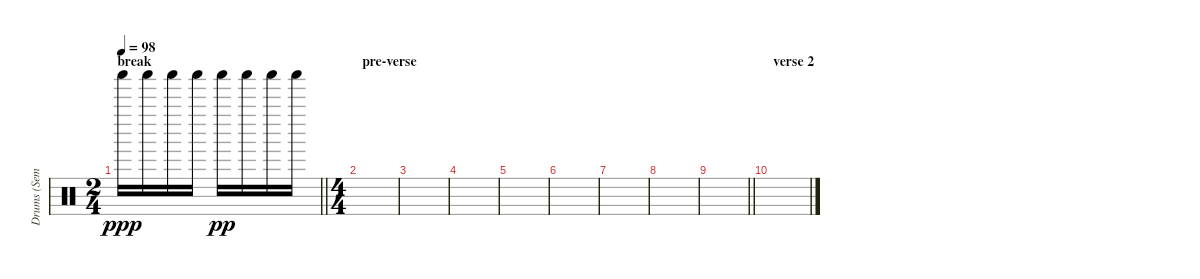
\track ("Drums (Semple)" "Drums (Sem") {instrument percussion}
\staff {score}
\articulation defaults
\ts (2 4)
\section ("" "break")
\tempo 98
\clef neutral
\barLineRight lightlight
\ks c "Shaker (hit)".16{dy ppp} "Shaker (hit)".16 "Shaker (hit)".16 "Shaker (hit)".16 "Shaker (hit)".16{dy pp} "Shaker (hit)".16 "Shaker (hit)".16 "Shaker (hit)".16
|
\ts (4 4)
\section ("" "pre-verse")
|
|
|
|
|
|
|
\barLineRight lightlight
|
\section ("" "verse 2")
